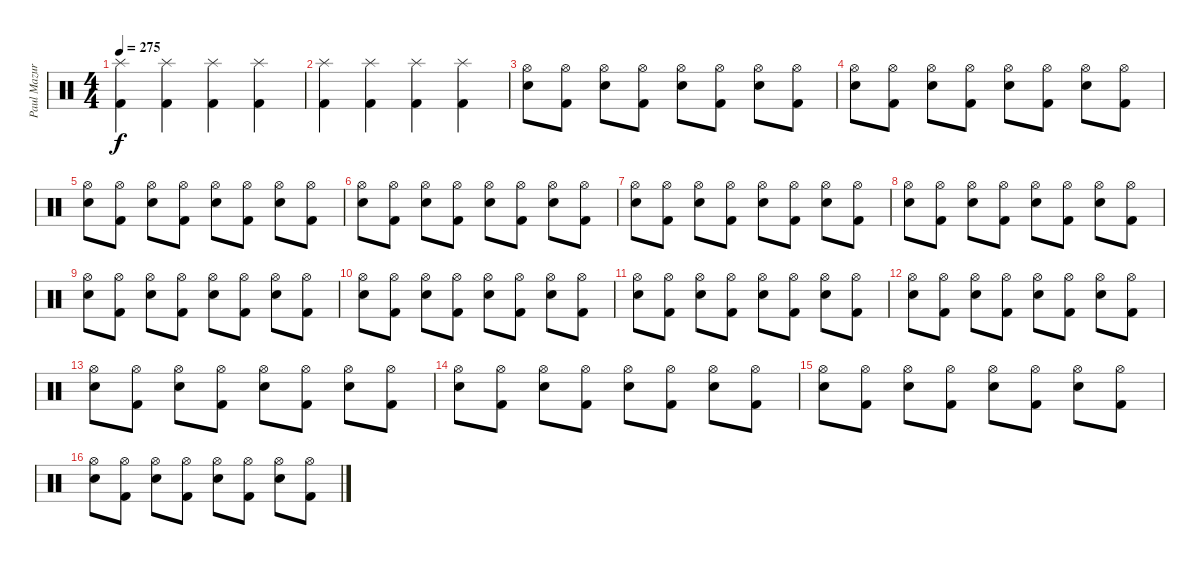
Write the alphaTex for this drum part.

\track ("Paul Mazurkiewicz" "Paul Mazur") {instrument percussion}
\staff {score}
\articulation defaults
\ts (4 4)
\tempo 275
\clef neutral
\ks c
("Splash (hit)" "Kick (hit) 2").4{dy f} ("Splash (hit)" "Kick (hit) 2").4 ("Splash (hit)" "Kick (hit) 2").4 ("Splash (hit)" "Kick (hit) 2").4 |
("Splash (hit)" "Kick (hit) 2").4 ("Splash (hit)" "Kick (hit) 2").4 ("Splash (hit)" "Kick (hit) 2").4 ("Splash (hit)" "Kick (hit) 2").4 |
("Hi-Hat (open)" "Snare (hit) 2").8 ("Hi-Hat (open)" "Kick (hit) 2").8 ("Hi-Hat (open)" "Snare (hit) 2").8 ("Hi-Hat (open)" "Kick (hit) 2").8 ("Hi-Hat (open)" "Snare (hit) 2").8 ("Hi-Hat (open)" "Kick (hit) 2").8 ("Hi-Hat (open)" "Snare (hit) 2").8 ("Hi-Hat (open)" "Kick (hit) 2").8 |
("Hi-Hat (open)" "Snare (hit) 2").8 ("Hi-Hat (open)" "Kick (hit) 2").8 ("Hi-Hat (open)" "Snare (hit) 2").8 ("Hi-Hat (open)" "Kick (hit) 2").8 ("Hi-Hat (open)" "Snare (hit) 2").8 ("Hi-Hat (open)" "Kick (hit) 2").8 ("Hi-Hat (open)" "Snare (hit) 2").8 ("Hi-Hat (open)" "Kick (hit) 2").8 |
("Hi-Hat (open)" "Snare (hit) 2").8 ("Hi-Hat (open)" "Kick (hit) 2").8 ("Hi-Hat (open)" "Snare (hit) 2").8 ("Hi-Hat (open)" "Kick (hit) 2").8 ("Hi-Hat (open)" "Snare (hit) 2").8 ("Hi-Hat (open)" "Kick (hit) 2").8 ("Hi-Hat (open)" "Snare (hit) 2").8 ("Hi-Hat (open)" "Kick (hit) 2").8 |
("Hi-Hat (open)" "Snare (hit) 2").8 ("Hi-Hat (open)" "Kick (hit) 2").8 ("Hi-Hat (open)" "Snare (hit) 2").8 ("Hi-Hat (open)" "Kick (hit) 2").8 ("Hi-Hat (open)" "Snare (hit) 2").8 ("Hi-Hat (open)" "Kick (hit) 2").8 ("Hi-Hat (open)" "Snare (hit) 2").8 ("Hi-Hat (open)" "Kick (hit) 2").8 |
("Hi-Hat (open)" "Snare (hit) 2").8 ("Hi-Hat (open)" "Kick (hit) 2").8 ("Hi-Hat (open)" "Snare (hit) 2").8 ("Hi-Hat (open)" "Kick (hit) 2").8 ("Hi-Hat (open)" "Snare (hit) 2").8 ("Hi-Hat (open)" "Kick (hit) 2").8 ("Hi-Hat (open)" "Snare (hit) 2").8 ("Hi-Hat (open)" "Kick (hit) 2").8 |
("Hi-Hat (open)" "Snare (hit) 2").8 ("Hi-Hat (open)" "Kick (hit) 2").8 ("Hi-Hat (open)" "Snare (hit) 2").8 ("Hi-Hat (open)" "Kick (hit) 2").8 ("Hi-Hat (open)" "Snare (hit) 2").8 ("Hi-Hat (open)" "Kick (hit) 2").8 ("Hi-Hat (open)" "Snare (hit) 2").8 ("Hi-Hat (open)" "Kick (hit) 2").8 |
("Hi-Hat (open)" "Snare (hit) 2").8 ("Hi-Hat (open)" "Kick (hit) 2").8 ("Hi-Hat (open)" "Snare (hit) 2").8 ("Hi-Hat (open)" "Kick (hit) 2").8 ("Hi-Hat (open)" "Snare (hit) 2").8 ("Hi-Hat (open)" "Kick (hit) 2").8 ("Hi-Hat (open)" "Snare (hit) 2").8 ("Hi-Hat (open)" "Kick (hit) 2").8 |
("Hi-Hat (open)" "Snare (hit) 2").8 ("Hi-Hat (open)" "Kick (hit) 2").8 ("Hi-Hat (open)" "Snare (hit) 2").8 ("Hi-Hat (open)" "Kick (hit) 2").8 ("Hi-Hat (open)" "Snare (hit) 2").8 ("Hi-Hat (open)" "Kick (hit) 2").8 ("Hi-Hat (open)" "Snare (hit) 2").8 ("Hi-Hat (open)" "Kick (hit) 2").8 |
("Hi-Hat (open)" "Snare (hit) 2").8 ("Hi-Hat (open)" "Kick (hit) 2").8 ("Hi-Hat (open)" "Snare (hit) 2").8 ("Hi-Hat (open)" "Kick (hit) 2").8 ("Hi-Hat (open)" "Snare (hit) 2").8 ("Hi-Hat (open)" "Kick (hit) 2").8 ("Hi-Hat (open)" "Snare (hit) 2").8 ("Hi-Hat (open)" "Kick (hit) 2").8 |
("Hi-Hat (open)" "Snare (hit) 2").8 ("Hi-Hat (open)" "Kick (hit) 2").8 ("Hi-Hat (open)" "Snare (hit) 2").8 ("Hi-Hat (open)" "Kick (hit) 2").8 ("Hi-Hat (open)" "Snare (hit) 2").8 ("Hi-Hat (open)" "Kick (hit) 2").8 ("Hi-Hat (open)" "Snare (hit) 2").8 ("Hi-Hat (open)" "Kick (hit) 2").8 |
("Hi-Hat (open)" "Snare (hit) 2").8 ("Hi-Hat (open)" "Kick (hit) 2").8 ("Hi-Hat (open)" "Snare (hit) 2").8 ("Hi-Hat (open)" "Kick (hit) 2").8 ("Hi-Hat (open)" "Snare (hit) 2").8 ("Hi-Hat (open)" "Kick (hit) 2").8 ("Hi-Hat (open)" "Snare (hit) 2").8 ("Hi-Hat (open)" "Kick (hit) 2").8 |
("Hi-Hat (open)" "Snare (hit) 2").8 ("Hi-Hat (open)" "Kick (hit) 2").8 ("Hi-Hat (open)" "Snare (hit) 2").8 ("Hi-Hat (open)" "Kick (hit) 2").8 ("Hi-Hat (open)" "Snare (hit) 2").8 ("Hi-Hat (open)" "Kick (hit) 2").8 ("Hi-Hat (open)" "Snare (hit) 2").8 ("Hi-Hat (open)" "Kick (hit) 2").8 |
("Hi-Hat (open)" "Snare (hit) 2").8 ("Hi-Hat (open)" "Kick (hit) 2").8 ("Hi-Hat (open)" "Snare (hit) 2").8 ("Hi-Hat (open)" "Kick (hit) 2").8 ("Hi-Hat (open)" "Snare (hit) 2").8 ("Hi-Hat (open)" "Kick (hit) 2").8 ("Hi-Hat (open)" "Snare (hit) 2").8 ("Hi-Hat (open)" "Kick (hit) 2").8 |
("Hi-Hat (open)" "Snare (hit) 2").8 ("Hi-Hat (open)" "Kick (hit) 2").8 ("Hi-Hat (open)" "Snare (hit) 2").8 ("Hi-Hat (open)" "Kick (hit) 2").8 ("Hi-Hat (open)" "Snare (hit) 2").8 ("Hi-Hat (open)" "Kick (hit) 2").8 ("Hi-Hat (open)" "Snare (hit) 2").8 ("Hi-Hat (open)" "Kick (hit) 2").8
